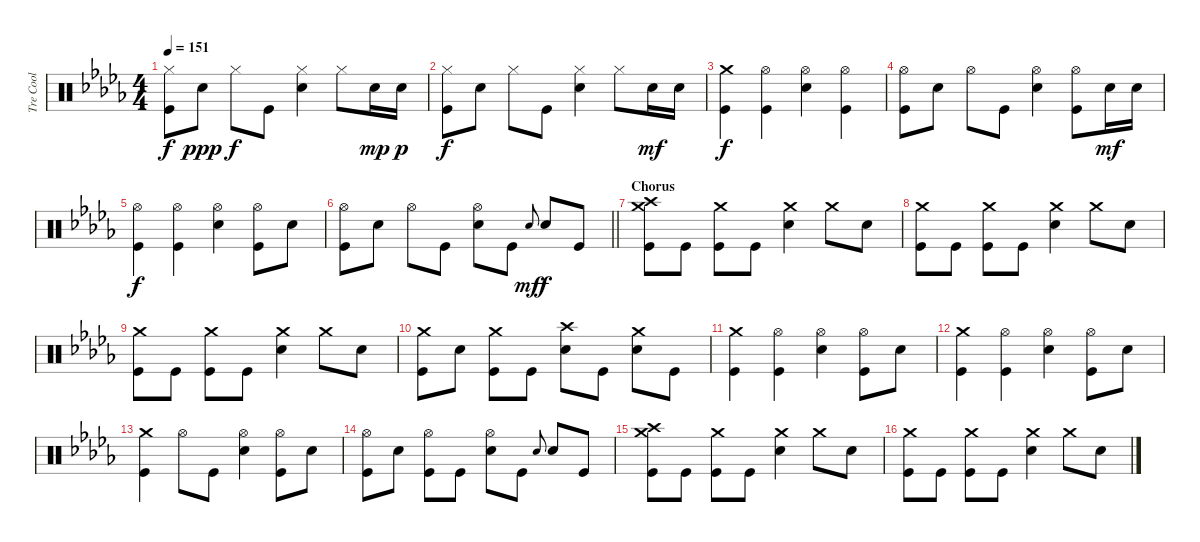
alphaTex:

\track ("Tre Cool" "Tre Cool") {instrument percussion}
\staff {score}
\articulation defaults
\ts (4 4)
\tempo 151
\clef neutral
\ks db
("Hi-Hat (closed)" "Kick (hit)").8{dy f} "Electric Snare (hit)".8{dy ppp} "Hi-Hat (closed)".8{dy f} "Kick (hit)".8 ("Hi-Hat (closed)" "Electric Snare (hit)").4 "Hi-Hat (closed)".8 "Electric Snare (hit)".16{dy mp} "Electric Snare (hit)".16{dy p} |
("Hi-Hat (closed)" "Kick (hit)").8{dy f} "Electric Snare (hit)".8 "Hi-Hat (closed)".8 "Kick (hit)".8 ("Hi-Hat (closed)" "Electric Snare (hit)").4 "Hi-Hat (closed)".8 "Electric Snare (hit)".16{dy mf} "Electric Snare (hit)".16 |
("Crash medium (hit)" "Kick (hit)").4{dy f} ("Hi-Hat (open)" "Kick (hit)").4 ("Hi-Hat (open)" "Electric Snare (hit)").4 ("Hi-Hat (open)" "Kick (hit)").4 |
("Hi-Hat (open)" "Kick (hit)").8 "Electric Snare (hit)".8 "Hi-Hat (open)".8 "Kick (hit)".8 ("Hi-Hat (open)" "Electric Snare (hit)").4 ("Hi-Hat (open)" "Kick (hit)").8 "Electric Snare (hit)".16{dy mf} "Electric Snare (hit)".16 |
("Hi-Hat (open)" "Kick (hit)").4{dy f} ("Hi-Hat (open)" "Kick (hit)").4 ("Hi-Hat (open)" "Electric Snare (hit)").4 ("Hi-Hat (open)" "Kick (hit)").8 "Electric Snare (hit)".8 |
\barLineRight lightlight
("Hi-Hat (open)" "Kick (hit)").8 "Electric Snare (hit)".8 "Hi-Hat (open)".8 "Kick (hit)".8 ("Hi-Hat (open)" "Electric Snare (hit)").8 "Kick (hit)".8 "Electric Snare (hit)".8{gr onbeat dy mf} "Electric Snare (hit)".8{dy f} "Kick (hit)".8 |
\section ("" "Chorus")
("Crash medium (hit)" "Crash high (hit)" "Kick (hit)").8 "Kick (hit)".8 ("Crash medium (hit)" "Kick (hit)").8 "Kick (hit)".8 ("Crash medium (hit)" "Electric Snare (hit)").4 "Crash medium (hit)".8 "Electric Snare (hit)".8 |
("Crash medium (hit)" "Kick (hit)").8 "Kick (hit)".8 ("Crash medium (hit)" "Kick (hit)").8 "Kick (hit)".8 ("Crash medium (hit)" "Electric Snare (hit)").4 "Crash medium (hit)".8 "Electric Snare (hit)".8 |
("Crash medium (hit)" "Kick (hit)").8 "Kick (hit)".8 ("Crash medium (hit)" "Kick (hit)").8 "Kick (hit)".8 ("Crash medium (hit)" "Electric Snare (hit)").4 "Crash medium (hit)".8 "Electric Snare (hit)".8 |
("Crash medium (hit)" "Kick (hit)").8 "Electric Snare (hit)".8 ("Crash medium (hit)" "Kick (hit)").8 "Kick (hit)".8 ("Crash high (hit)" "Electric Snare (hit)").8 "Kick (hit)".8 ("Crash medium (hit)" "Electric Snare (hit)").8 "Kick (hit)".8 |
("Crash medium (hit)" "Kick (hit)").4 ("Hi-Hat (open)" "Kick (hit)").4 ("Hi-Hat (open)" "Electric Snare (hit)").4 ("Hi-Hat (open)" "Kick (hit)").8 "Electric Snare (hit)".8 |
("Crash medium (hit)" "Kick (hit)").4 ("Hi-Hat (open)" "Kick (hit)").4 ("Hi-Hat (open)" "Electric Snare (hit)").4 ("Hi-Hat (open)" "Kick (hit)").8 "Electric Snare (hit)".8 |
("Crash medium (hit)" "Kick (hit)").4 "Hi-Hat (open)".8 "Kick (hit)".8 ("Hi-Hat (open)" "Electric Snare (hit)").4 ("Hi-Hat (open)" "Kick (hit)").8 "Electric Snare (hit)".8 |
("Hi-Hat (open)" "Kick (hit)").8 "Electric Snare (hit)".8 ("Hi-Hat (open)" "Kick (hit)").8 "Kick (hit)".8 ("Hi-Hat (open)" "Electric Snare (hit)").8 "Kick (hit)".8 "Electric Snare (hit)".8{gr onbeat} "Electric Snare (hit)".8 "Kick (hit)".8 |
("Crash medium (hit)" "Crash high (hit)" "Kick (hit)").8 "Kick (hit)".8 ("Crash medium (hit)" "Kick (hit)").8 "Kick (hit)".8 ("Crash medium (hit)" "Electric Snare (hit)").4 "Crash medium (hit)".8 "Electric Snare (hit)".8 |
("Crash medium (hit)" "Kick (hit)").8 "Kick (hit)".8 ("Crash medium (hit)" "Kick (hit)").8 "Kick (hit)".8 ("Crash medium (hit)" "Electric Snare (hit)").4 "Crash medium (hit)".8 "Electric Snare (hit)".8
